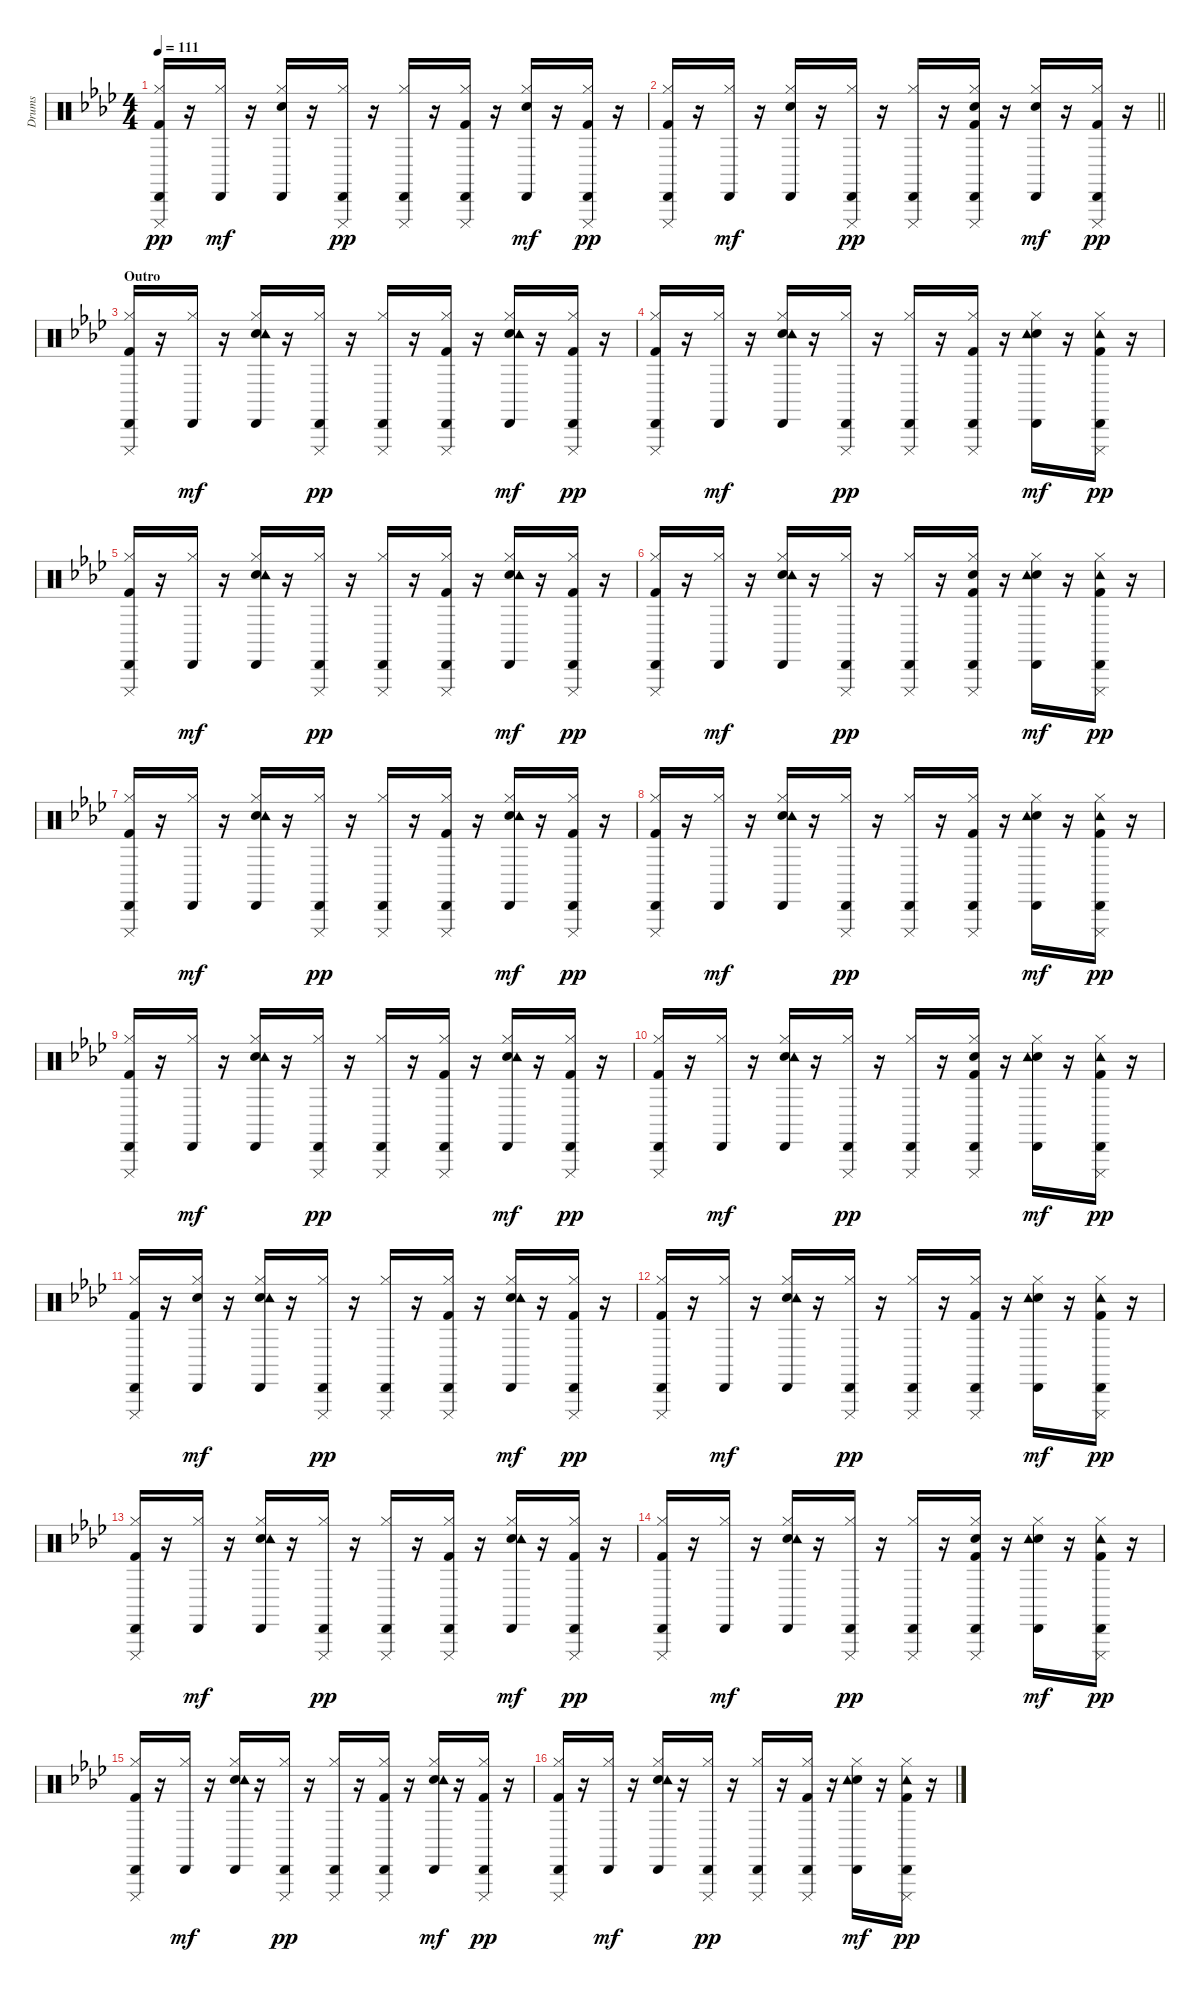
\track ("Drums" "Drums") {instrument percussion}
\staff {score}
\articulation defaults
\ts (4 4)
\tempo 111
\clef neutral
\ks ab
("Kick (hit) 2" "Hi-Hat (closed)" "Cabasa (hit)" "Cuica (mute)").16{dy pp} r.16 ("Hi-Hat (closed)" "Cabasa (hit)").16{dy mf} r.16 ("Electric Snare (hit)" "Hi-Hat (closed)" "Cabasa (hit)").16 r.16 ("Hi-Hat (closed)" "Cabasa (hit)" "Cuica (mute)").16{dy pp} r.16 ("Hi-Hat (closed)" "Cabasa (hit)" "Cuica (mute)").16 r.16 ("Kick (hit) 2" "Hi-Hat (closed)" "Cabasa (hit)" "Cuica (mute)").16 r.16 ("Electric Snare (hit)" "Hi-Hat (closed)" "Cabasa (hit)").16{dy mf} r.16 ("Kick (hit) 2" "Hi-Hat (closed)" "Cabasa (hit)" "Cuica (mute)").16{dy pp} r.16 |
\barLineRight lightlight
("Kick (hit) 2" "Hi-Hat (closed)" "Cabasa (hit)" "Cuica (mute)").16 r.16 ("Hi-Hat (closed)" "Cabasa (hit)").16{dy mf} r.16 ("Electric Snare (hit)" "Hi-Hat (closed)" "Cabasa (hit)").16 r.16 ("Hi-Hat (closed)" "Cabasa (hit)" "Cuica (mute)").16{dy pp} r.16 ("Hi-Hat (closed)" "Cabasa (hit)" "Cuica (mute)").16 r.16 ("Kick (hit) 2" "Electric Snare (hit)" "Hi-Hat (closed)" "Cabasa (hit)" "Cuica (mute)").16 r.16 ("Electric Snare (hit)" "Hi-Hat (closed)" "Cabasa (hit)").16{dy mf} r.16 ("Kick (hit) 2" "Hi-Hat (closed)" "Cabasa (hit)" "Cuica (mute)").16{dy pp} r.16 |
\section ("" "Outro")
("Kick (hit) 2" "Hi-Hat (closed)" "Cabasa (hit)" "Cuica (mute)").16 r.16 ("Hi-Hat (closed)" "Cabasa (hit)").16{dy mf} r.16 ("Electric Snare (hit)" "Hi-Hat (closed)" "Tambourine (hit)" "Cabasa (hit)").16 r.16 ("Hi-Hat (closed)" "Cabasa (hit)" "Cuica (mute)").16{dy pp} r.16 ("Hi-Hat (closed)" "Cabasa (hit)" "Cuica (mute)").16 r.16 ("Kick (hit) 2" "Hi-Hat (closed)" "Cabasa (hit)" "Cuica (mute)").16 r.16 ("Electric Snare (hit)" "Hi-Hat (closed)" "Tambourine (hit)" "Cabasa (hit)").16{dy mf} r.16 ("Kick (hit) 2" "Hi-Hat (closed)" "Cabasa (hit)" "Cuica (mute)").16{dy pp} r.16 |
("Kick (hit) 2" "Hi-Hat (closed)" "Cabasa (hit)" "Cuica (mute)").16 r.16 ("Hi-Hat (closed)" "Cabasa (hit)").16{dy mf} r.16 ("Electric Snare (hit)" "Hi-Hat (closed)" "Tambourine (hit)" "Cabasa (hit)").16 r.16 ("Hi-Hat (closed)" "Cabasa (hit)" "Cuica (mute)").16{dy pp} r.16 ("Hi-Hat (closed)" "Cabasa (hit)" "Cuica (mute)").16 r.16 ("Kick (hit) 2" "Hi-Hat (closed)" "Cabasa (hit)" "Cuica (mute)").16 r.16 ("Electric Snare (hit)" "Hi-Hat (closed)" "Tambourine (hit)" "Cabasa (hit)").16{dy mf} r.16 ("Kick (hit) 2" "Hi-Hat (closed)" "Tambourine (hit)" "Cabasa (hit)" "Cuica (mute)").16{dy pp} r.16 |
("Kick (hit) 2" "Hi-Hat (closed)" "Cabasa (hit)" "Cuica (mute)").16 r.16 ("Hi-Hat (closed)" "Cabasa (hit)").16{dy mf} r.16 ("Electric Snare (hit)" "Hi-Hat (closed)" "Tambourine (hit)" "Cabasa (hit)").16 r.16 ("Hi-Hat (closed)" "Cabasa (hit)" "Cuica (mute)").16{dy pp} r.16 ("Hi-Hat (closed)" "Cabasa (hit)" "Cuica (mute)").16 r.16 ("Kick (hit) 2" "Hi-Hat (closed)" "Cabasa (hit)" "Cuica (mute)").16 r.16 ("Electric Snare (hit)" "Hi-Hat (closed)" "Tambourine (hit)" "Cabasa (hit)").16{dy mf} r.16 ("Kick (hit) 2" "Hi-Hat (closed)" "Cabasa (hit)" "Cuica (mute)").16{dy pp} r.16 |
("Kick (hit) 2" "Hi-Hat (closed)" "Cabasa (hit)" "Cuica (mute)").16 r.16 ("Hi-Hat (closed)" "Cabasa (hit)").16{dy mf} r.16 ("Electric Snare (hit)" "Hi-Hat (closed)" "Tambourine (hit)" "Cabasa (hit)").16 r.16 ("Hi-Hat (closed)" "Cabasa (hit)" "Cuica (mute)").16{dy pp} r.16 ("Hi-Hat (closed)" "Cabasa (hit)" "Cuica (mute)").16 r.16 ("Kick (hit) 2" "Electric Snare (hit)" "Hi-Hat (closed)" "Cabasa (hit)" "Cuica (mute)").16 r.16 ("Electric Snare (hit)" "Hi-Hat (closed)" "Tambourine (hit)" "Cabasa (hit)").16{dy mf} r.16 ("Kick (hit) 2" "Hi-Hat (closed)" "Tambourine (hit)" "Cabasa (hit)" "Cuica (mute)").16{dy pp} r.16 |
("Kick (hit) 2" "Hi-Hat (closed)" "Cabasa (hit)" "Cuica (mute)").16 r.16 ("Hi-Hat (closed)" "Cabasa (hit)").16{dy mf} r.16 ("Electric Snare (hit)" "Hi-Hat (closed)" "Tambourine (hit)" "Cabasa (hit)").16 r.16 ("Hi-Hat (closed)" "Cabasa (hit)" "Cuica (mute)").16{dy pp} r.16 ("Hi-Hat (closed)" "Cabasa (hit)" "Cuica (mute)").16 r.16 ("Kick (hit) 2" "Hi-Hat (closed)" "Cabasa (hit)" "Cuica (mute)").16 r.16 ("Electric Snare (hit)" "Hi-Hat (closed)" "Tambourine (hit)" "Cabasa (hit)").16{dy mf} r.16 ("Kick (hit) 2" "Hi-Hat (closed)" "Cabasa (hit)" "Cuica (mute)").16{dy pp} r.16 |
("Kick (hit) 2" "Hi-Hat (closed)" "Cabasa (hit)" "Cuica (mute)").16 r.16 ("Hi-Hat (closed)" "Cabasa (hit)").16{dy mf} r.16 ("Electric Snare (hit)" "Hi-Hat (closed)" "Tambourine (hit)" "Cabasa (hit)").16 r.16 ("Hi-Hat (closed)" "Cabasa (hit)" "Cuica (mute)").16{dy pp} r.16 ("Hi-Hat (closed)" "Cabasa (hit)" "Cuica (mute)").16 r.16 ("Kick (hit) 2" "Hi-Hat (closed)" "Cabasa (hit)" "Cuica (mute)").16 r.16 ("Electric Snare (hit)" "Hi-Hat (closed)" "Tambourine (hit)" "Cabasa (hit)").16{dy mf} r.16 ("Kick (hit) 2" "Hi-Hat (closed)" "Tambourine (hit)" "Cabasa (hit)" "Cuica (mute)").16{dy pp} r.16 |
("Kick (hit) 2" "Hi-Hat (closed)" "Cabasa (hit)" "Cuica (mute)").16 r.16 ("Hi-Hat (closed)" "Cabasa (hit)").16{dy mf} r.16 ("Electric Snare (hit)" "Hi-Hat (closed)" "Tambourine (hit)" "Cabasa (hit)").16 r.16 ("Hi-Hat (closed)" "Cabasa (hit)" "Cuica (mute)").16{dy pp} r.16 ("Hi-Hat (closed)" "Cabasa (hit)" "Cuica (mute)").16 r.16 ("Kick (hit) 2" "Hi-Hat (closed)" "Cabasa (hit)" "Cuica (mute)").16 r.16 ("Electric Snare (hit)" "Hi-Hat (closed)" "Tambourine (hit)" "Cabasa (hit)").16{dy mf} r.16 ("Kick (hit) 2" "Hi-Hat (closed)" "Cabasa (hit)" "Cuica (mute)").16{dy pp} r.16 |
("Kick (hit) 2" "Hi-Hat (closed)" "Cabasa (hit)" "Cuica (mute)").16 r.16 ("Hi-Hat (closed)" "Cabasa (hit)").16{dy mf} r.16 ("Electric Snare (hit)" "Hi-Hat (closed)" "Tambourine (hit)" "Cabasa (hit)").16 r.16 ("Hi-Hat (closed)" "Cabasa (hit)" "Cuica (mute)").16{dy pp} r.16 ("Hi-Hat (closed)" "Cabasa (hit)" "Cuica (mute)").16 r.16 ("Kick (hit) 2" "Electric Snare (hit)" "Hi-Hat (closed)" "Cabasa (hit)" "Cuica (mute)").16 r.16 ("Electric Snare (hit)" "Hi-Hat (closed)" "Tambourine (hit)" "Cabasa (hit)").16{dy mf} r.16 ("Kick (hit) 2" "Hi-Hat (closed)" "Tambourine (hit)" "Cabasa (hit)" "Cuica (mute)").16{dy pp} r.16 |
("Kick (hit) 2" "Hi-Hat (closed)" "Cabasa (hit)" "Cuica (mute)").16 r.16 ("Electric Snare (hit)" "Hi-Hat (closed)" "Cabasa (hit)").16{dy mf} r.16 ("Electric Snare (hit)" "Hi-Hat (closed)" "Tambourine (hit)" "Cabasa (hit)").16 r.16 ("Hi-Hat (closed)" "Cabasa (hit)" "Cuica (mute)").16{dy pp} r.16 ("Hi-Hat (closed)" "Cabasa (hit)" "Cuica (mute)").16 r.16 ("Kick (hit) 2" "Hi-Hat (closed)" "Cabasa (hit)" "Cuica (mute)").16 r.16 ("Electric Snare (hit)" "Hi-Hat (closed)" "Tambourine (hit)" "Cabasa (hit)").16{dy mf} r.16 ("Kick (hit) 2" "Hi-Hat (closed)" "Cabasa (hit)" "Cuica (mute)").16{dy pp} r.16 |
("Kick (hit) 2" "Hi-Hat (closed)" "Cabasa (hit)" "Cuica (mute)").16 r.16 ("Hi-Hat (closed)" "Cabasa (hit)").16{dy mf} r.16 ("Electric Snare (hit)" "Hi-Hat (closed)" "Tambourine (hit)" "Cabasa (hit)").16 r.16 ("Hi-Hat (closed)" "Cabasa (hit)" "Cuica (mute)").16{dy pp} r.16 ("Hi-Hat (closed)" "Cabasa (hit)" "Cuica (mute)").16 r.16 ("Kick (hit) 2" "Hi-Hat (closed)" "Cabasa (hit)" "Cuica (mute)").16 r.16 ("Electric Snare (hit)" "Hi-Hat (closed)" "Tambourine (hit)" "Cabasa (hit)").16{dy mf} r.16 ("Kick (hit) 2" "Hi-Hat (closed)" "Tambourine (hit)" "Cabasa (hit)" "Cuica (mute)").16{dy pp} r.16 |
("Kick (hit) 2" "Hi-Hat (closed)" "Cabasa (hit)" "Cuica (mute)").16 r.16 ("Hi-Hat (closed)" "Cabasa (hit)").16{dy mf} r.16 ("Electric Snare (hit)" "Hi-Hat (closed)" "Tambourine (hit)" "Cabasa (hit)").16 r.16 ("Hi-Hat (closed)" "Cabasa (hit)" "Cuica (mute)").16{dy pp} r.16 ("Hi-Hat (closed)" "Cabasa (hit)" "Cuica (mute)").16 r.16 ("Kick (hit) 2" "Hi-Hat (closed)" "Cabasa (hit)" "Cuica (mute)").16 r.16 ("Electric Snare (hit)" "Hi-Hat (closed)" "Tambourine (hit)" "Cabasa (hit)").16{dy mf} r.16 ("Kick (hit) 2" "Hi-Hat (closed)" "Cabasa (hit)" "Cuica (mute)").16{dy pp} r.16 |
("Kick (hit) 2" "Hi-Hat (closed)" "Cabasa (hit)" "Cuica (mute)").16 r.16 ("Hi-Hat (closed)" "Cabasa (hit)").16{dy mf} r.16 ("Electric Snare (hit)" "Hi-Hat (closed)" "Tambourine (hit)" "Cabasa (hit)").16 r.16 ("Hi-Hat (closed)" "Cabasa (hit)" "Cuica (mute)").16{dy pp} r.16 ("Hi-Hat (closed)" "Cabasa (hit)" "Cuica (mute)").16 r.16 ("Kick (hit) 2" "Electric Snare (hit)" "Hi-Hat (closed)" "Cabasa (hit)" "Cuica (mute)").16 r.16 ("Electric Snare (hit)" "Hi-Hat (closed)" "Tambourine (hit)" "Cabasa (hit)").16{dy mf} r.16 ("Kick (hit) 2" "Hi-Hat (closed)" "Tambourine (hit)" "Cabasa (hit)" "Cuica (mute)").16{dy pp} r.16 |
("Kick (hit) 2" "Hi-Hat (closed)" "Cabasa (hit)" "Cuica (mute)").16 r.16 ("Hi-Hat (closed)" "Cabasa (hit)").16{dy mf} r.16 ("Electric Snare (hit)" "Hi-Hat (closed)" "Tambourine (hit)" "Cabasa (hit)").16 r.16 ("Hi-Hat (closed)" "Cabasa (hit)" "Cuica (mute)").16{dy pp} r.16 ("Hi-Hat (closed)" "Cabasa (hit)" "Cuica (mute)").16 r.16 ("Kick (hit) 2" "Hi-Hat (closed)" "Cabasa (hit)" "Cuica (mute)").16 r.16 ("Electric Snare (hit)" "Hi-Hat (closed)" "Tambourine (hit)" "Cabasa (hit)").16{dy mf} r.16 ("Kick (hit) 2" "Hi-Hat (closed)" "Cabasa (hit)" "Cuica (mute)").16{dy pp} r.16 |
("Kick (hit) 2" "Hi-Hat (closed)" "Cabasa (hit)" "Cuica (mute)").16 r.16 ("Hi-Hat (closed)" "Cabasa (hit)").16{dy mf} r.16 ("Electric Snare (hit)" "Hi-Hat (closed)" "Tambourine (hit)" "Cabasa (hit)").16 r.16 ("Hi-Hat (closed)" "Cabasa (hit)" "Cuica (mute)").16{dy pp} r.16 ("Hi-Hat (closed)" "Cabasa (hit)" "Cuica (mute)").16 r.16 ("Kick (hit) 2" "Hi-Hat (closed)" "Cabasa (hit)" "Cuica (mute)").16 r.16 ("Electric Snare (hit)" "Hi-Hat (closed)" "Tambourine (hit)" "Cabasa (hit)").16{dy mf} r.16 ("Kick (hit) 2" "Hi-Hat (closed)" "Tambourine (hit)" "Cabasa (hit)" "Cuica (mute)").16{dy pp} r.16
